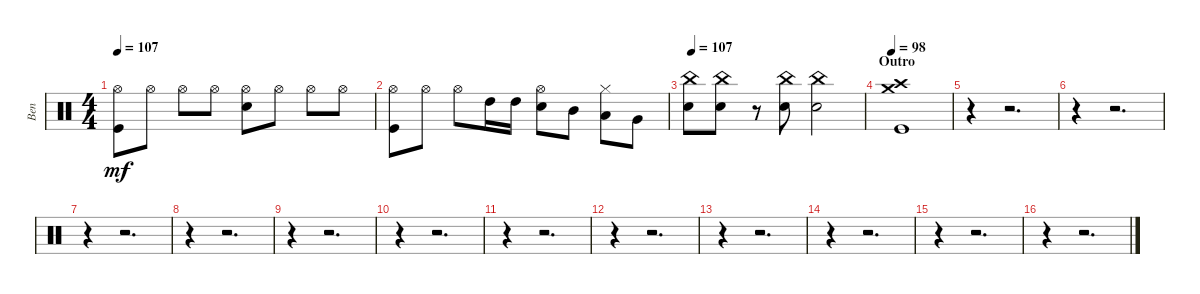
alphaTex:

\track ("Ben" "Ben") {instrument percussion}
\staff {score}
\articulation defaults
\ts (4 4)
\tempo 107
\clef neutral
\ks c
("Kick (hit)" "Hi-Hat (open)").8{dy mf} "Hi-Hat (open)".8 "Hi-Hat (open)".8 "Hi-Hat (open)".8 ("Hi-Hat (open)" "Snare (hit) 2").8 "Hi-Hat (open)".8 "Hi-Hat (open)".8 "Hi-Hat (open)".8 |
("Kick (hit)" "Hi-Hat (open)").8 "Hi-Hat (open)".8 "Hi-Hat (open)".8 "High Tom (hit)".16 "High Tom (hit)".16 ("Snare (hit) 2" "Hi-Hat (open)").8 "Mid Tom (hit)".8 ("Low Tom (hit)" "Hi-Hat (closed)").8 "Very Low Tom (hit)".8 |
\tempo 107
("Snare (hit) 2" "China (hit)").8 ("Snare (hit) 2" "China (hit)").8 r.8 ("Snare (hit) 2" "China (hit)").8 ("Snare (hit) 2" "China (hit)").2 |
\section ("" "Outro")
\tempo 98
("Kick (hit)" "Crash high (hit)" "Crash medium (hit)").1 |
r.4 r.2{d} |
r.4 r.2{d} |
r.4 r.2{d} |
r.4 r.2{d} |
r.4 r.2{d} |
r.4 r.2{d} |
r.4 r.2{d} |
r.4 r.2{d} |
r.4 r.2{d} |
r.4 r.2{d} |
r.4 r.2{d} |
r.4 r.2{d}
